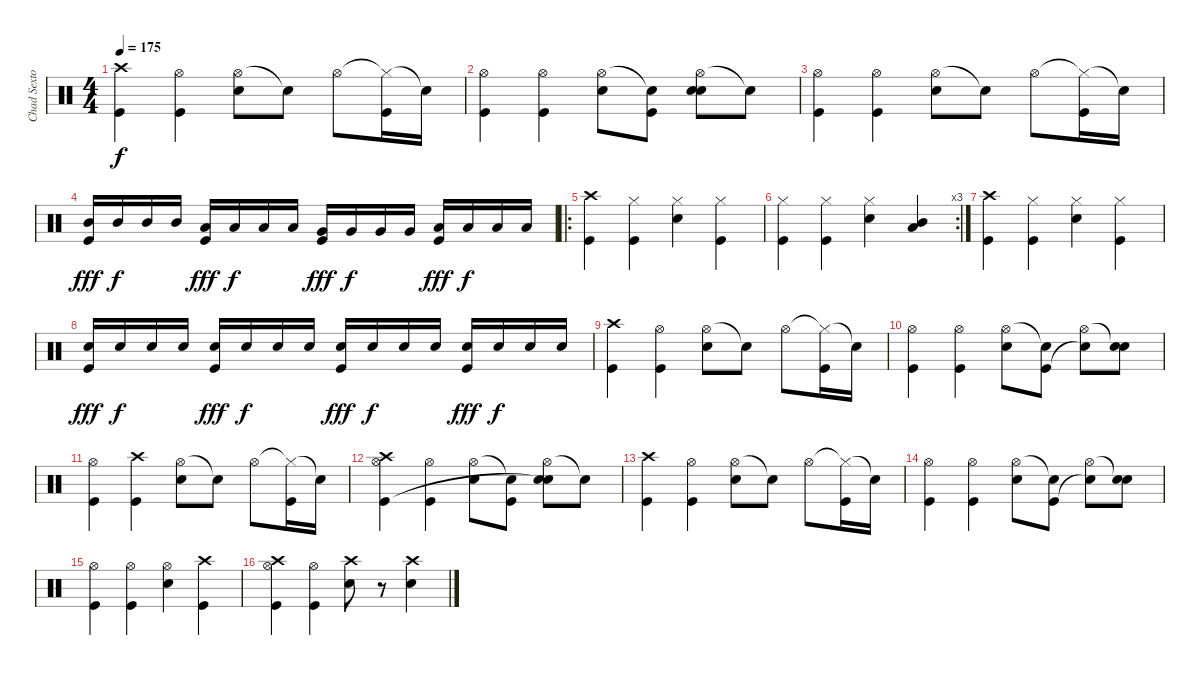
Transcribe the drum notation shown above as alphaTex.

\track ("Chad Sexton" "Chad Sexto") {instrument percussion}
\staff {score}
\articulation defaults
\ts (4 4)
\tempo 175
\clef neutral
\ks c
("Crash high (hit)" "Kick (hit)").4{dy f} ("Hi-Hat (open)" "Kick (hit)").4 ("Hi-Hat (open)" "Snare (hit) 2").8 "Snare (hit)"{t}.8 "Hi-Hat (open)".8 ("Hi-Hat (closed)"{t} "Kick (hit)").16 "Snare (hit)"{t}.16 |
("Hi-Hat (open)" "Kick (hit)").4 ("Hi-Hat (open)" "Kick (hit)").4 ("Hi-Hat (open)" "Snare (hit) 2").8 ("Snare (hit)"{t} "Kick (hit)").8 ("Hi-Hat (open)" "Snare (hit) 2" "Snare (hit)").8 "Snare (hit)"{t}.8 |
("Hi-Hat (open)" "Kick (hit)").4 ("Hi-Hat (open)" "Kick (hit)").4 ("Hi-Hat (open)" "Snare (hit) 2").8 "Snare (hit)"{t}.8 "Hi-Hat (open)".8 ("Hi-Hat (closed)"{t} "Kick (hit)").16 "Snare (hit)"{t}.16 |
("Mid Tom (hit)" "Kick (hit)").16{dy fff} "Mid Tom (hit)".16{dy f} "Mid Tom (hit)".16 "Mid Tom (hit)".16 ("Low Tom (hit)" "Kick (hit)").16{dy fff} "Low Tom (hit)".16{dy f} "Low Tom (hit)".16 "Low Tom (hit)".16 ("Very Low Tom (hit)" "Kick (hit)").16{dy fff} "Very Low Tom (hit)".16{dy f} "Very Low Tom (hit)".16 "Very Low Tom (hit)".16 ("Low Floor Tom (hit)" "Kick (hit)").16{dy fff} "Low Floor Tom (hit)".16{dy f} "Low Floor Tom (hit)".16 "Low Floor Tom (hit)".16 |
\ro
("Crash high (hit)" "Kick (hit)").4 ("Hi-Hat (closed)" "Kick (hit)").4 ("Hi-Hat (closed)" "Snare (hit) 2").4 ("Hi-Hat (closed)" "Kick (hit)").4 |
\rc 3
("Hi-Hat (closed)" "Kick (hit)").4 ("Hi-Hat (closed)" "Kick (hit)").4 ("Hi-Hat (closed)" "Snare (hit) 2").4 ("Mid Tom (hit)" "Low Tom (hit)").4 |
("Crash high (hit)" "Kick (hit)").4 ("Hi-Hat (closed)" "Kick (hit)").4 ("Hi-Hat (closed)" "Snare (hit) 2").4 ("Hi-Hat (closed)" "Kick (hit)").4 |
("Snare (hit) 2" "Kick (hit)").16{dy fff} "Snare (hit) 2".16{dy f} "Snare (hit) 2".16 "Snare (hit) 2".16 ("Snare (hit) 2" "Kick (hit)").16{dy fff} "Snare (hit) 2".16{dy f} "Snare (hit) 2".16 "Snare (hit) 2".16 ("Snare (hit) 2" "Kick (hit)").16{dy fff} "Snare (hit) 2".16{dy f} "Snare (hit) 2".16 "Snare (hit) 2".16 ("Snare (hit) 2" "Kick (hit)").16{dy fff} "Snare (hit) 2".16{dy f} "Snare (hit) 2".16 "Snare (hit) 2".16 |
("Crash high (hit)" "Kick (hit)").4 ("Hi-Hat (open)" "Kick (hit)").4 ("Hi-Hat (open)" "Snare (hit) 2").8 "Snare (hit)"{t}.8 "Hi-Hat (open)".8 ("Hi-Hat (closed)"{t} "Kick (hit)").16 "Snare (hit)"{t}.16 |
("Hi-Hat (open)" "Kick (hit)").4 ("Hi-Hat (open)" "Kick (hit)").4 ("Hi-Hat (open)" "Snare (hit) 2").8 ("Snare (hit)"{t} "Kick (hit)").8 ("Hi-Hat (open)" "Snare (hit)"{t}).8 ("Snare (hit)"{t} "Snare (hit) 2").8 |
("Hi-Hat (open)" "Kick (hit)").4 ("Crash high (hit)" "Kick (hit)").4 ("Hi-Hat (open)" "Snare (hit) 2").8 "Snare (hit)"{t}.8 "Hi-Hat (open)".8 ("Hi-Hat (closed)"{t} "Kick (hit)").16 "Snare (hit)"{t}.16 |
("Crash high (hit)" "Hi-Hat (open)" "Kick (hit)").4 ("Hi-Hat (open)" "Kick (hit)").4 ("Hi-Hat (open)" "Snare (hit) 2").8 ("Snare (hit)"{t} "Kick (hit)").8 ("Hi-Hat (open)" "Snare (hit) 2" "Snare (hit)"{t}).8 "Snare (hit)"{t}.8 |
("Crash high (hit)" "Kick (hit)").4 ("Hi-Hat (open)" "Kick (hit)").4 ("Hi-Hat (open)" "Snare (hit) 2").8 "Snare (hit)"{t}.8 "Hi-Hat (open)".8 ("Hi-Hat (closed)"{t} "Kick (hit)").16 "Snare (hit)"{t}.16 |
("Hi-Hat (open)" "Kick (hit)").4 ("Hi-Hat (open)" "Kick (hit)").4 ("Hi-Hat (open)" "Snare (hit) 2").8 ("Snare (hit)"{t} "Kick (hit)").8 ("Hi-Hat (open)" "Snare (hit)"{t}).8 ("Snare (hit)"{t} "Snare (hit) 2").8 |
("Hi-Hat (open)" "Kick (hit)").4 ("Hi-Hat (open)" "Kick (hit)").4 ("Hi-Hat (open)" "Snare (hit) 2").4 ("Crash high (hit)" "Kick (hit)").4 |
("Crash high (hit)" "Hi-Hat (open)" "Kick (hit)").4 ("Hi-Hat (open)" "Kick (hit)").4 ("Crash high (hit)" "Snare (hit) 2").8 r.8 ("Crash high (hit)" "Snare (hit) 2").4
